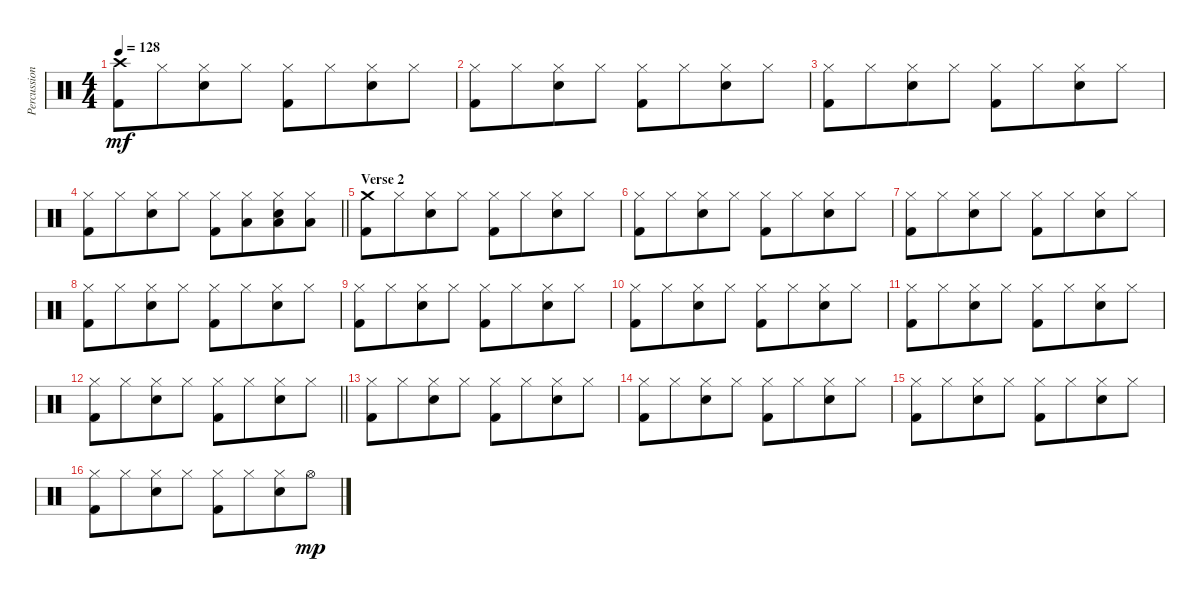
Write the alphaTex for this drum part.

\track ("Percussion" "Percussion") {instrument percussion}
\staff {score}
\articulation defaults
\ts (4 4)
\tempo 128
\clef neutral
\ks c
("Crash high (hit)" "Kick (hit) 2").8{dy mf} "Hi-Hat (closed)".8{beam merge} ("Hi-Hat (closed)" "Snare (hit) 2").8 "Hi-Hat (closed)".8 ("Hi-Hat (closed)" "Kick (hit) 2").8 "Hi-Hat (closed)".8{beam merge} ("Hi-Hat (closed)" "Snare (hit) 2").8 "Hi-Hat (closed)".8 |
("Hi-Hat (closed)" "Kick (hit) 2").8 "Hi-Hat (closed)".8{beam merge} ("Hi-Hat (closed)" "Snare (hit) 2").8 "Hi-Hat (closed)".8 ("Hi-Hat (closed)" "Kick (hit) 2").8 "Hi-Hat (closed)".8{beam merge} ("Hi-Hat (closed)" "Snare (hit) 2").8 "Hi-Hat (closed)".8 |
("Hi-Hat (closed)" "Kick (hit) 2").8 "Hi-Hat (closed)".8{beam merge} ("Hi-Hat (closed)" "Snare (hit) 2").8 "Hi-Hat (closed)".8 ("Hi-Hat (closed)" "Kick (hit) 2").8 "Hi-Hat (closed)".8{beam merge} ("Hi-Hat (closed)" "Snare (hit) 2").8 "Hi-Hat (closed)".8 |
\barLineRight lightlight
("Hi-Hat (closed)" "Kick (hit) 2").8 "Hi-Hat (closed)".8{beam merge} ("Hi-Hat (closed)" "Snare (hit) 2").8 "Hi-Hat (closed)".8 ("Hi-Hat (closed)" "Kick (hit) 2").8 ("Hi-Hat (closed)" "Low Tom (hit)").8{beam merge} ("Hi-Hat (closed)" "Low Tom (hit)" "Snare (hit) 2").8 ("Hi-Hat (closed)" "Low Tom (hit)").8 |
\section ("" "Verse 2")
("Crash medium (hit)" "Kick (hit) 2").8 "Hi-Hat (closed)".8{beam merge} ("Hi-Hat (closed)" "Snare (hit) 2").8 "Hi-Hat (closed)".8 ("Hi-Hat (closed)" "Kick (hit) 2").8 "Hi-Hat (closed)".8{beam merge} ("Hi-Hat (closed)" "Snare (hit) 2").8 "Hi-Hat (closed)".8 |
("Hi-Hat (closed)" "Kick (hit) 2").8 "Hi-Hat (closed)".8{beam merge} ("Hi-Hat (closed)" "Snare (hit) 2").8 "Hi-Hat (closed)".8 ("Hi-Hat (closed)" "Kick (hit) 2").8 "Hi-Hat (closed)".8{beam merge} ("Hi-Hat (closed)" "Snare (hit) 2").8 "Hi-Hat (closed)".8 |
("Hi-Hat (closed)" "Kick (hit) 2").8 "Hi-Hat (closed)".8{beam merge} ("Hi-Hat (closed)" "Snare (hit) 2").8 "Hi-Hat (closed)".8 ("Hi-Hat (closed)" "Kick (hit) 2").8 "Hi-Hat (closed)".8{beam merge} ("Hi-Hat (closed)" "Snare (hit) 2").8 "Hi-Hat (closed)".8 |
("Hi-Hat (closed)" "Kick (hit) 2").8 "Hi-Hat (closed)".8{beam merge} ("Hi-Hat (closed)" "Snare (hit) 2").8 "Hi-Hat (closed)".8 ("Hi-Hat (closed)" "Kick (hit) 2").8 "Hi-Hat (closed)".8{beam merge} ("Hi-Hat (closed)" "Snare (hit) 2").8 "Hi-Hat (closed)".8 |
("Hi-Hat (closed)" "Kick (hit) 2").8 "Hi-Hat (closed)".8{beam merge} ("Hi-Hat (closed)" "Snare (hit) 2").8 "Hi-Hat (closed)".8 ("Hi-Hat (closed)" "Kick (hit) 2").8 "Hi-Hat (closed)".8{beam merge} ("Hi-Hat (closed)" "Snare (hit) 2").8 "Hi-Hat (closed)".8 |
("Hi-Hat (closed)" "Kick (hit) 2").8 "Hi-Hat (closed)".8{beam merge} ("Hi-Hat (closed)" "Snare (hit) 2").8 "Hi-Hat (closed)".8 ("Hi-Hat (closed)" "Kick (hit) 2").8 "Hi-Hat (closed)".8{beam merge} ("Hi-Hat (closed)" "Snare (hit) 2").8 "Hi-Hat (closed)".8 |
("Hi-Hat (closed)" "Kick (hit) 2").8 "Hi-Hat (closed)".8{beam merge} ("Hi-Hat (closed)" "Snare (hit) 2").8 "Hi-Hat (closed)".8 ("Hi-Hat (closed)" "Kick (hit) 2").8 "Hi-Hat (closed)".8{beam merge} ("Hi-Hat (closed)" "Snare (hit) 2").8 "Hi-Hat (closed)".8 |
\barLineRight lightlight
("Hi-Hat (closed)" "Kick (hit) 2").8 "Hi-Hat (closed)".8{beam merge} ("Hi-Hat (closed)" "Snare (hit) 2").8 "Hi-Hat (closed)".8 ("Hi-Hat (closed)" "Kick (hit) 2").8 "Hi-Hat (closed)".8{beam merge} ("Hi-Hat (closed)" "Snare (hit) 2").8 "Hi-Hat (closed)".8 |
\section ("" "")
("Hi-Hat (closed)" "Kick (hit) 2").8 "Hi-Hat (closed)".8{beam merge} ("Hi-Hat (closed)" "Snare (hit) 2").8 "Hi-Hat (closed)".8 ("Hi-Hat (closed)" "Kick (hit) 2").8 "Hi-Hat (closed)".8{beam merge} ("Hi-Hat (closed)" "Snare (hit) 2").8 "Hi-Hat (closed)".8 |
("Hi-Hat (closed)" "Kick (hit) 2").8 "Hi-Hat (closed)".8{beam merge} ("Hi-Hat (closed)" "Snare (hit) 2").8 "Hi-Hat (closed)".8 ("Hi-Hat (closed)" "Kick (hit) 2").8 "Hi-Hat (closed)".8{beam merge} ("Hi-Hat (closed)" "Snare (hit) 2").8 "Hi-Hat (closed)".8 |
("Hi-Hat (closed)" "Kick (hit) 2").8 "Hi-Hat (closed)".8{beam merge} ("Hi-Hat (closed)" "Snare (hit) 2").8 "Hi-Hat (closed)".8 ("Hi-Hat (closed)" "Kick (hit) 2").8 "Hi-Hat (closed)".8{beam merge} ("Hi-Hat (closed)" "Snare (hit) 2").8 "Hi-Hat (closed)".8 |
("Hi-Hat (closed)" "Kick (hit) 2").8 "Hi-Hat (closed)".8{beam merge} ("Hi-Hat (closed)" "Snare (hit) 2").8 "Hi-Hat (closed)".8 ("Hi-Hat (closed)" "Kick (hit) 2").8 "Hi-Hat (closed)".8{beam merge} ("Hi-Hat (closed)" "Snare (hit) 2").8 "Hi-Hat (open)".8{dy mp}
